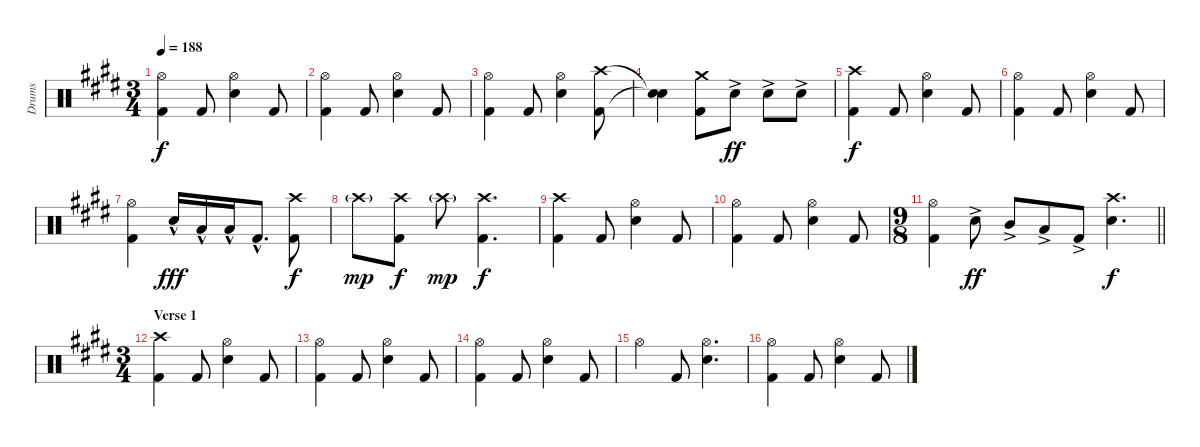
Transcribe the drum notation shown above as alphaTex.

\track ("Drums" "Drums") {instrument percussion}
\staff {score}
\articulation defaults
\ts (3 4)
\tempo 188
\clef neutral
\ks e
("Hi-Hat (open)" "Kick (hit) 2").4{dy f} "Kick (hit) 2".8 ("Hi-Hat (open)" "Electric Snare (hit)").4 "Kick (hit) 2".8 |
("Hi-Hat (open)" "Kick (hit) 2").4 "Kick (hit) 2".8 ("Hi-Hat (open)" "Electric Snare (hit)").4 "Kick (hit) 2".8 |
("Hi-Hat (open)" "Kick (hit) 2").4 "Kick (hit) 2".8 ("Hi-Hat (open)" "Electric Snare (hit)").4 ("Crash high (hit)" "Kick (hit) 2").8 |
("Snare (hit)"{t} "Snare (hit)"{t}).4 ("Crash medium (hit)" "Kick (hit) 2").8 "Electric Snare (hit)"{ac}.8{dy ff} "Electric Snare (hit)"{ac}.8 "Electric Snare (hit)"{ac}.8 |
("Crash high (hit)" "Kick (hit) 2").4{dy f} "Kick (hit) 2".8 ("Hi-Hat (open)" "Electric Snare (hit)").4 "Kick (hit) 2".8 |
("Hi-Hat (open)" "Kick (hit) 2").4 "Kick (hit) 2".8 ("Hi-Hat (open)" "Electric Snare (hit)").4 "Kick (hit) 2".8 |
("Hi-Hat (open)" "Kick (hit) 2").4 "Electric Snare (hit)"{hac}.16{dy fff} "Low Tom (hit)"{hac}.16 "Low Tom (hit)"{hac}.16 "Kick (hit) 2"{hac}.8{d} ("Crash high (hit)" "Kick (hit) 2").8{dy f} |
"Crash high (hit)"{g}.8{dy mp} ("Crash high (hit)" "Kick (hit) 2").8{dy f} "Crash high (hit)"{g}.8{dy mp} ("Crash high (hit)" "Kick (hit) 2").4{d dy f} |
("Crash high (hit)" "Kick (hit) 2").4 "Kick (hit) 2".8 ("Hi-Hat (open)" "Electric Snare (hit)").4 "Kick (hit) 2".8 |
("Hi-Hat (open)" "Kick (hit) 2").4 "Kick (hit) 2".8 ("Hi-Hat (open)" "Electric Snare (hit)").4 "Kick (hit) 2".8 |
\ts (9 8)
\barLineRight lightlight
("Hi-Hat (open)" "Kick (hit) 2").4 "Electric Snare (hit)"{ac}.8{dy ff} "Mid Tom (hit)"{ac}.8 "Low Tom (hit)"{ac}.8 "Kick (hit) 2"{ac}.8 ("Crash high (hit)" "Electric Snare (hit)").4{d dy f} |
\ts (3 4)
\section ("" "Verse 1")
("Crash high (hit)" "Kick (hit) 2").4 "Kick (hit) 2".8 ("Hi-Hat (open)" "Electric Snare (hit)").4 "Kick (hit) 2".8 |
("Hi-Hat (open)" "Kick (hit) 2").4 "Kick (hit) 2".8 ("Hi-Hat (open)" "Electric Snare (hit)").4 "Kick (hit) 2".8 |
("Hi-Hat (open)" "Kick (hit) 2").4 "Kick (hit) 2".8 ("Hi-Hat (open)" "Electric Snare (hit)").4 "Kick (hit) 2".8 |
"Hi-Hat (open)".4 "Kick (hit) 2".8 ("Hi-Hat (open)" "Electric Snare (hit)").4{d} |
("Hi-Hat (open)" "Kick (hit) 2").4 "Kick (hit) 2".8 ("Hi-Hat (open)" "Electric Snare (hit)").4 "Kick (hit) 2".8
